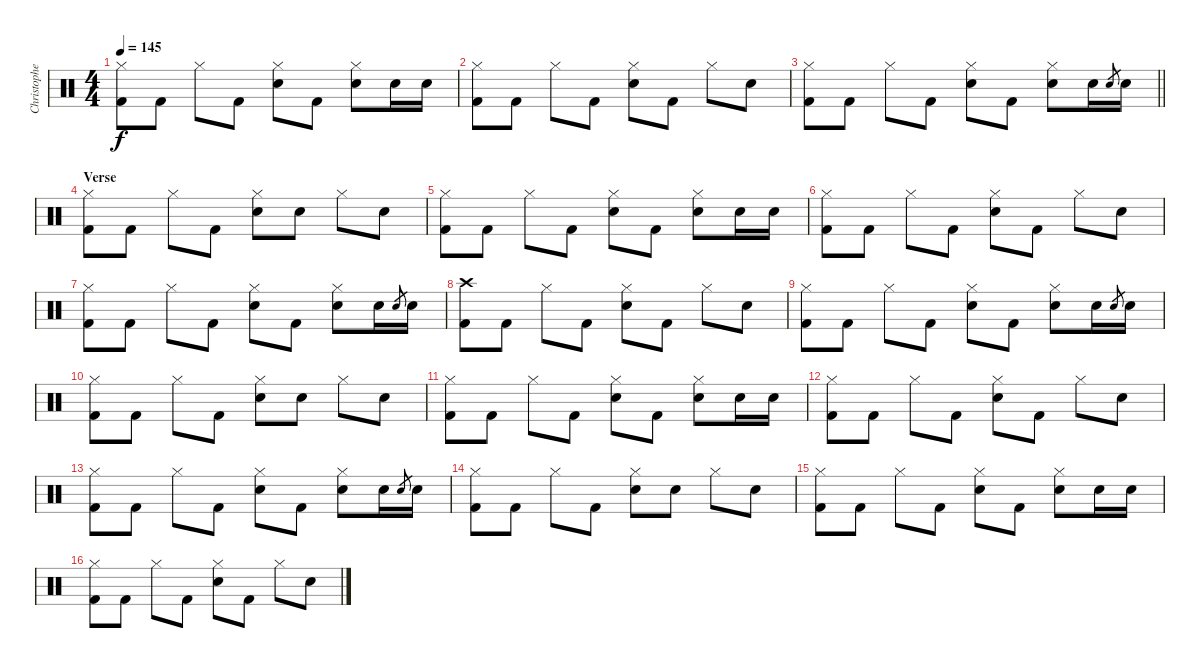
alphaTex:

\track ("Christopher - Drums" "Christophe") {instrument percussion}
\staff {score}
\articulation defaults
\ts (4 4)
\tempo 145
\clef neutral
\ks c
("Hi-Hat (closed)" "Kick (hit) 2").8{dy f} "Kick (hit) 2".8 "Hi-Hat (closed)".8 "Kick (hit) 2".8 ("Hi-Hat (closed)" "Electric Snare (hit)").8 "Kick (hit) 2".8 ("Hi-Hat (closed)" "Electric Snare (hit)").8 "Electric Snare (hit)".16 "Electric Snare (hit)".16 |
("Hi-Hat (closed)" "Kick (hit) 2").8 "Kick (hit) 2".8 "Hi-Hat (closed)".8 "Kick (hit) 2".8 ("Hi-Hat (closed)" "Electric Snare (hit)").8 "Kick (hit) 2".8 "Hi-Hat (closed)".8 "Electric Snare (hit)".8 |
\barLineRight lightlight
("Hi-Hat (closed)" "Kick (hit) 2").8 "Kick (hit) 2".8 "Hi-Hat (closed)".8 "Kick (hit) 2".8 ("Hi-Hat (closed)" "Electric Snare (hit)").8 "Kick (hit) 2".8 ("Hi-Hat (closed)" "Electric Snare (hit)").8 "Electric Snare (hit)".16 "Electric Snare (hit)".8{gr} "Electric Snare (hit)".16 |
\section ("" "Verse")
("Hi-Hat (closed)" "Kick (hit) 2").8 "Kick (hit) 2".8 "Hi-Hat (closed)".8 "Kick (hit) 2".8 ("Hi-Hat (closed)" "Electric Snare (hit)").8 "Electric Snare (hit)".8 "Hi-Hat (closed)".8 "Electric Snare (hit)".8 |
("Hi-Hat (closed)" "Kick (hit) 2").8 "Kick (hit) 2".8 "Hi-Hat (closed)".8 "Kick (hit) 2".8 ("Hi-Hat (closed)" "Electric Snare (hit)").8 "Kick (hit) 2".8 ("Hi-Hat (closed)" "Electric Snare (hit)").8 "Electric Snare (hit)".16 "Electric Snare (hit)".16 |
("Hi-Hat (closed)" "Kick (hit) 2").8 "Kick (hit) 2".8 "Hi-Hat (closed)".8 "Kick (hit) 2".8 ("Hi-Hat (closed)" "Electric Snare (hit)").8 "Kick (hit) 2".8 "Hi-Hat (closed)".8 "Electric Snare (hit)".8 |
("Hi-Hat (closed)" "Kick (hit) 2").8 "Kick (hit) 2".8 "Hi-Hat (closed)".8 "Kick (hit) 2".8 ("Hi-Hat (closed)" "Electric Snare (hit)").8 "Kick (hit) 2".8 ("Hi-Hat (closed)" "Electric Snare (hit)").8 "Electric Snare (hit)".16 "Electric Snare (hit)".8{gr} "Electric Snare (hit)".16 |
("Crash high (hit)" "Kick (hit) 2").8 "Kick (hit) 2".8 "Hi-Hat (closed)".8 "Kick (hit) 2".8 ("Hi-Hat (closed)" "Electric Snare (hit)").8 "Kick (hit) 2".8 "Hi-Hat (closed)".8 "Electric Snare (hit)".8 |
("Hi-Hat (closed)" "Kick (hit) 2").8 "Kick (hit) 2".8 "Hi-Hat (closed)".8 "Kick (hit) 2".8 ("Hi-Hat (closed)" "Electric Snare (hit)").8 "Kick (hit) 2".8 ("Hi-Hat (closed)" "Electric Snare (hit)").8 "Electric Snare (hit)".16 "Electric Snare (hit)".8{gr} "Electric Snare (hit)".16 |
("Hi-Hat (closed)" "Kick (hit) 2").8 "Kick (hit) 2".8 "Hi-Hat (closed)".8 "Kick (hit) 2".8 ("Hi-Hat (closed)" "Electric Snare (hit)").8 "Electric Snare (hit)".8 "Hi-Hat (closed)".8 "Electric Snare (hit)".8 |
("Hi-Hat (closed)" "Kick (hit) 2").8 "Kick (hit) 2".8 "Hi-Hat (closed)".8 "Kick (hit) 2".8 ("Hi-Hat (closed)" "Electric Snare (hit)").8 "Kick (hit) 2".8 ("Hi-Hat (closed)" "Electric Snare (hit)").8 "Electric Snare (hit)".16 "Electric Snare (hit)".16 |
("Hi-Hat (closed)" "Kick (hit) 2").8 "Kick (hit) 2".8 "Hi-Hat (closed)".8 "Kick (hit) 2".8 ("Hi-Hat (closed)" "Electric Snare (hit)").8 "Kick (hit) 2".8 "Hi-Hat (closed)".8 "Electric Snare (hit)".8 |
("Hi-Hat (closed)" "Kick (hit) 2").8 "Kick (hit) 2".8 "Hi-Hat (closed)".8 "Kick (hit) 2".8 ("Hi-Hat (closed)" "Electric Snare (hit)").8 "Kick (hit) 2".8 ("Hi-Hat (closed)" "Electric Snare (hit)").8 "Electric Snare (hit)".16 "Electric Snare (hit)".8{gr} "Electric Snare (hit)".16 |
("Hi-Hat (closed)" "Kick (hit) 2").8 "Kick (hit) 2".8 "Hi-Hat (closed)".8 "Kick (hit) 2".8 ("Hi-Hat (closed)" "Electric Snare (hit)").8 "Electric Snare (hit)".8 "Hi-Hat (closed)".8 "Electric Snare (hit)".8 |
("Hi-Hat (closed)" "Kick (hit) 2").8 "Kick (hit) 2".8 "Hi-Hat (closed)".8 "Kick (hit) 2".8 ("Hi-Hat (closed)" "Electric Snare (hit)").8 "Kick (hit) 2".8 ("Hi-Hat (closed)" "Electric Snare (hit)").8 "Electric Snare (hit)".16 "Electric Snare (hit)".16 |
("Hi-Hat (closed)" "Kick (hit) 2").8 "Kick (hit) 2".8 "Hi-Hat (closed)".8 "Kick (hit) 2".8 ("Hi-Hat (closed)" "Electric Snare (hit)").8 "Kick (hit) 2".8 "Hi-Hat (closed)".8 "Electric Snare (hit)".8
